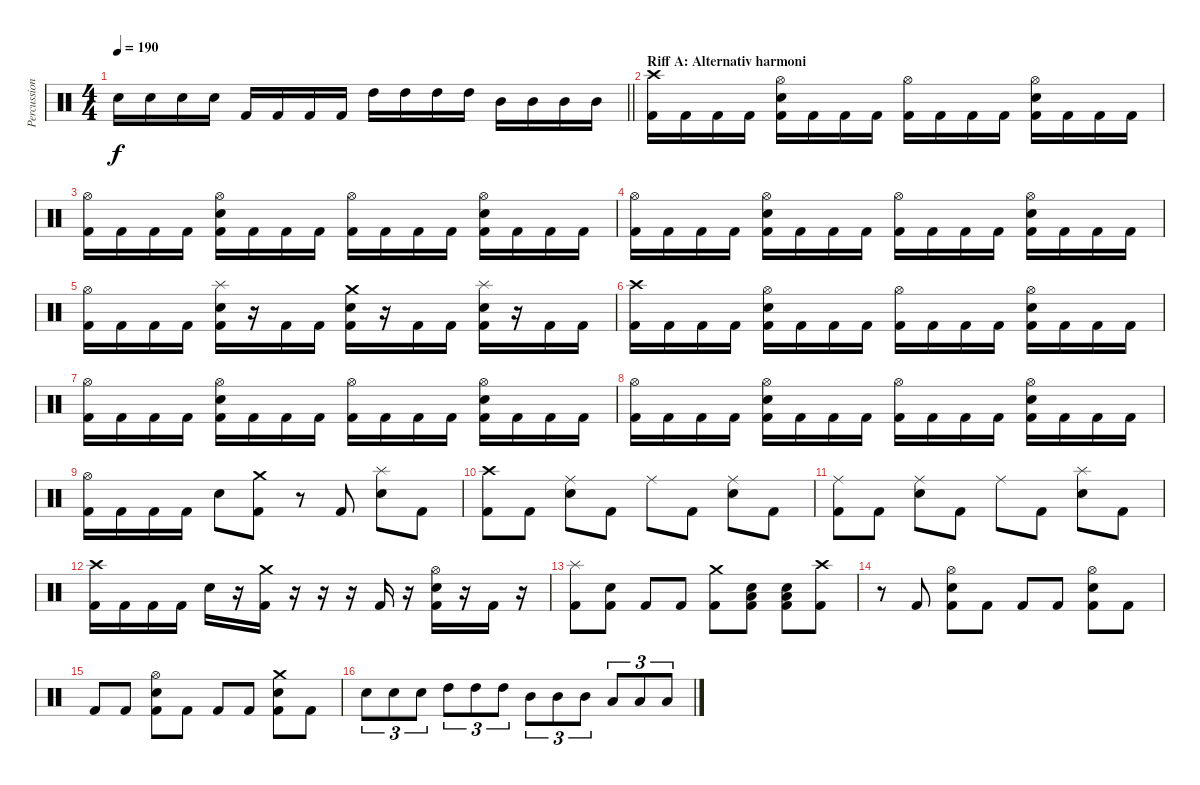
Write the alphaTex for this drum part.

\track ("Percussion" "Percussion") {instrument percussion}
\staff {score}
\articulation defaults
\ts (4 4)
\tempo 190
\clef neutral
\barLineRight lightlight
\ks c "Snare (hit) 2".16{dy f} "Snare (hit) 2".16 "Snare (hit) 2".16 "Snare (hit) 2".16 "Kick (hit) 2".16 "Kick (hit) 2".16 "Kick (hit) 2".16 "Kick (hit) 2".16 "High Tom (hit)".16 "High Tom (hit)".16 "High Tom (hit)".16 "High Tom (hit)".16 "Mid Tom (hit)".16 "Mid Tom (hit)".16 "Mid Tom (hit)".16 "Mid Tom (hit)".16
|
\section ("" "Riff A: Alternativ harmoni")
("Crash high (hit)" "Kick (hit) 2").16 "Kick (hit) 2".16 "Kick (hit) 2".16 "Kick (hit) 2".16 ("Hi-Hat (open)" "Snare (hit) 2" "Kick (hit) 2").16 "Kick (hit) 2".16 "Kick (hit) 2".16 "Kick (hit) 2".16 ("Hi-Hat (open)" "Kick (hit) 2").16 "Kick (hit) 2".16 "Kick (hit) 2".16 "Kick (hit) 2".16 ("Hi-Hat (open)" "Snare (hit) 2" "Kick (hit) 2").16 "Kick (hit) 2".16 "Kick (hit) 2".16 "Kick (hit) 2".16 |
("Hi-Hat (open)" "Kick (hit) 2").16 "Kick (hit) 2".16 "Kick (hit) 2".16 "Kick (hit) 2".16 ("Hi-Hat (open)" "Snare (hit) 2" "Kick (hit) 2").16 "Kick (hit) 2".16 "Kick (hit) 2".16 "Kick (hit) 2".16 ("Hi-Hat (open)" "Kick (hit) 2").16 "Kick (hit) 2".16 "Kick (hit) 2".16 "Kick (hit) 2".16 ("Hi-Hat (open)" "Snare (hit) 2" "Kick (hit) 2").16 "Kick (hit) 2".16 "Kick (hit) 2".16 "Kick (hit) 2".16 |
("Hi-Hat (open)" "Kick (hit) 2").16 "Kick (hit) 2".16 "Kick (hit) 2".16 "Kick (hit) 2".16 ("Hi-Hat (open)" "Snare (hit) 2" "Kick (hit) 2").16 "Kick (hit) 2".16 "Kick (hit) 2".16 "Kick (hit) 2".16 ("Hi-Hat (open)" "Kick (hit) 2").16 "Kick (hit) 2".16 "Kick (hit) 2".16 "Kick (hit) 2".16 ("Hi-Hat (open)" "Snare (hit) 2" "Kick (hit) 2").16 "Kick (hit) 2".16 "Kick (hit) 2".16 "Kick (hit) 2".16 |
("Hi-Hat (open)" "Kick (hit) 2").16 "Kick (hit) 2".16 "Kick (hit) 2".16 "Kick (hit) 2".16 ("Splash (hit)" "Snare (hit) 2" "Kick (hit) 2").16 r.16 "Kick (hit) 2".16 "Kick (hit) 2".16 ("Crash medium (hit)" "Snare (hit) 2" "Kick (hit) 2").16 r.16 "Kick (hit) 2".16 "Kick (hit) 2".16 ("Splash (hit)" "Snare (hit) 2" "Kick (hit) 2").16 r.16 "Kick (hit) 2".16 "Kick (hit) 2".16 |
("Crash high (hit)" "Kick (hit) 2").16 "Kick (hit) 2".16 "Kick (hit) 2".16 "Kick (hit) 2".16 ("Hi-Hat (open)" "Snare (hit) 2" "Kick (hit) 2").16 "Kick (hit) 2".16 "Kick (hit) 2".16 "Kick (hit) 2".16 ("Hi-Hat (open)" "Kick (hit) 2").16 "Kick (hit) 2".16 "Kick (hit) 2".16 "Kick (hit) 2".16 ("Hi-Hat (open)" "Snare (hit) 2" "Kick (hit) 2").16 "Kick (hit) 2".16 "Kick (hit) 2".16 "Kick (hit) 2".16 |
("Hi-Hat (open)" "Kick (hit) 2").16 "Kick (hit) 2".16 "Kick (hit) 2".16 "Kick (hit) 2".16 ("Hi-Hat (open)" "Snare (hit) 2" "Kick (hit) 2").16 "Kick (hit) 2".16 "Kick (hit) 2".16 "Kick (hit) 2".16 ("Hi-Hat (open)" "Kick (hit) 2").16 "Kick (hit) 2".16 "Kick (hit) 2".16 "Kick (hit) 2".16 ("Hi-Hat (open)" "Snare (hit) 2" "Kick (hit) 2").16 "Kick (hit) 2".16 "Kick (hit) 2".16 "Kick (hit) 2".16 |
("Hi-Hat (open)" "Kick (hit) 2").16 "Kick (hit) 2".16 "Kick (hit) 2".16 "Kick (hit) 2".16 ("Hi-Hat (open)" "Snare (hit) 2" "Kick (hit) 2").16 "Kick (hit) 2".16 "Kick (hit) 2".16 "Kick (hit) 2".16 ("Hi-Hat (open)" "Kick (hit) 2").16 "Kick (hit) 2".16 "Kick (hit) 2".16 "Kick (hit) 2".16 ("Hi-Hat (open)" "Snare (hit) 2" "Kick (hit) 2").16 "Kick (hit) 2".16 "Kick (hit) 2".16 "Kick (hit) 2".16 |
("Hi-Hat (open)" "Kick (hit) 2").16 "Kick (hit) 2".16 "Kick (hit) 2".16 "Kick (hit) 2".16 "Snare (hit) 2".8 ("Crash medium (hit)" "Kick (hit) 2").8 r.8 "Kick (hit) 2".8 ("Splash (hit)" "Snare (hit) 2").8 "Kick (hit) 2".8 |
("Crash high (hit)" "Kick (hit) 2").8 "Kick (hit) 2".8 ("Ride (middle)" "Snare (hit) 2").8 "Kick (hit) 2".8 "Ride (middle)".8 "Kick (hit) 2".8 ("Ride (middle)" "Snare (hit) 2").8 "Kick (hit) 2".8 |
("Ride (middle)" "Kick (hit) 2").8 "Kick (hit) 2".8 ("Ride (middle)" "Snare (hit) 2").8 "Kick (hit) 2".8 "Ride (middle)".8 "Kick (hit) 2".8 ("Splash (hit)" "Snare (hit) 2").8 "Kick (hit) 2".8 |
("Crash high (hit)" "Kick (hit) 2").16 "Kick (hit) 2".16 "Kick (hit) 2".16 "Kick (hit) 2".16 "Snare (hit) 2".16 r.16 ("Crash medium (hit)" "Kick (hit) 2").16 r.16 r.16 r.16 "Kick (hit) 2".16 r.16 ("Hi-Hat (open)" "Snare (hit) 2" "Kick (hit) 2").16 r.16 "Kick (hit) 2".16 r.16 |
("Splash (hit)" "Kick (hit) 2").8 ("Snare (hit) 2" "Kick (hit) 2").8 "Kick (hit) 2".8 "Kick (hit) 2".8 ("Crash medium (hit)" "Kick (hit) 2").8 ("Low Tom (hit)" "Snare (hit) 2" "Kick (hit) 2").8 ("Low Tom (hit)" "Snare (hit) 2" "Kick (hit) 2").8 ("Crash high (hit)" "Kick (hit) 2").8 |
r.8 "Kick (hit) 2".8 ("Hi-Hat (open)" "Snare (hit) 2" "Kick (hit) 2").8 "Kick (hit) 2".8 "Kick (hit) 2".8 "Kick (hit) 2".8 ("Hi-Hat (open)" "Snare (hit) 2" "Kick (hit) 2").8 "Kick (hit) 2".8 |
"Kick (hit) 2".8 "Kick (hit) 2".8 ("Hi-Hat (open)" "Snare (hit) 2" "Kick (hit) 2").8 "Kick (hit) 2".8 "Kick (hit) 2".8 "Kick (hit) 2".8 ("Crash medium (hit)" "Snare (hit) 2" "Kick (hit) 2").8 "Kick (hit) 2".8 |
"Snare (hit) 2".8{tu (3 2)} "Snare (hit) 2".8{tu (3 2)} "Snare (hit) 2".8{tu (3 2)} "High Tom (hit)".8{tu (3 2)} "High Tom (hit)".8{tu (3 2)} "High Tom (hit)".8{tu (3 2)} "Mid Tom (hit)".8{tu (3 2)} "Mid Tom (hit)".8{tu (3 2)} "Mid Tom (hit)".8{tu (3 2)} "Low Tom (hit)".8{tu (3 2)} "Low Tom (hit)".8{tu (3 2)} "Low Tom (hit)".8{tu (3 2)}
